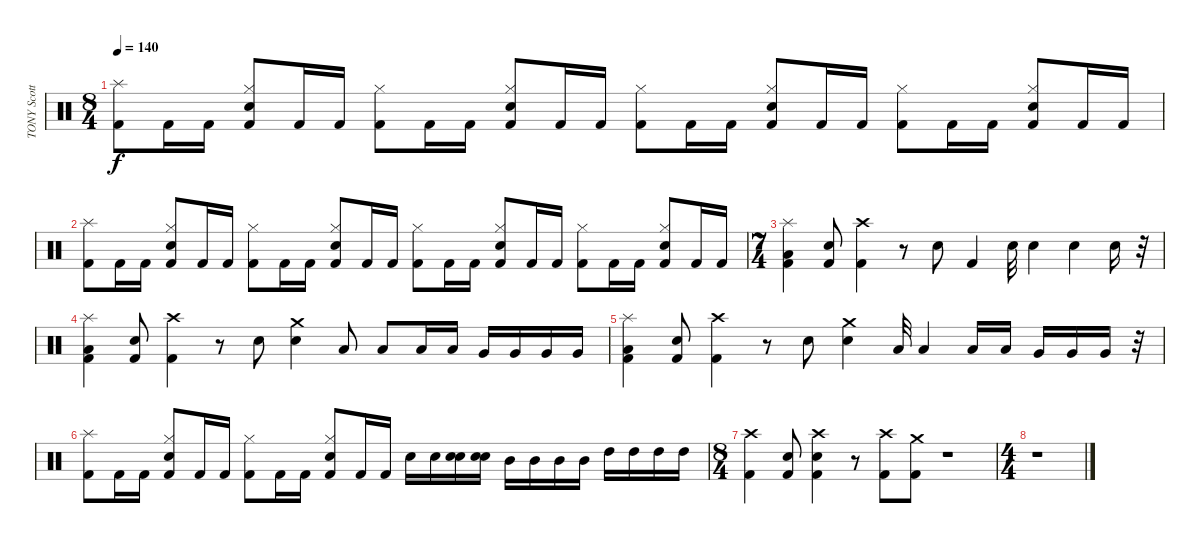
\track ("TONY Scotto" "TONY Scott") {instrument percussion}
\staff {score}
\articulation defaults
\ts (8 4)
\tempo 140
\clef neutral
\ks c
("Splash (hit)" "Kick (hit) 2").8{dy f} "Kick (hit) 2".16 "Kick (hit) 2".16 ("Hi-Hat (closed)" "Electric Snare (hit)" "Kick (hit) 2").8 "Kick (hit) 2".16 "Kick (hit) 2".16 ("Hi-Hat (closed)" "Kick (hit) 2").8 "Kick (hit) 2".16 "Kick (hit) 2".16 ("Hi-Hat (closed)" "Electric Snare (hit)" "Kick (hit) 2").8 "Kick (hit) 2".16 "Kick (hit) 2".16 ("Hi-Hat (closed)" "Kick (hit) 2").8 "Kick (hit) 2".16 "Kick (hit) 2".16 ("Hi-Hat (closed)" "Electric Snare (hit)" "Kick (hit) 2").8 "Kick (hit) 2".16 "Kick (hit) 2".16 ("Hi-Hat (closed)" "Kick (hit) 2").8 "Kick (hit) 2".16 "Kick (hit) 2".16 ("Hi-Hat (closed)" "Electric Snare (hit)" "Kick (hit) 2").8 "Kick (hit) 2".16 "Kick (hit) 2".16 |
("Splash (hit)" "Kick (hit) 2").8 "Kick (hit) 2".16 "Kick (hit) 2".16 ("Hi-Hat (closed)" "Electric Snare (hit)" "Kick (hit) 2").8 "Kick (hit) 2".16 "Kick (hit) 2".16 ("Hi-Hat (closed)" "Kick (hit) 2").8 "Kick (hit) 2".16 "Kick (hit) 2".16 ("Hi-Hat (closed)" "Electric Snare (hit)" "Kick (hit) 2").8 "Kick (hit) 2".16 "Kick (hit) 2".16 ("Hi-Hat (closed)" "Kick (hit) 2").8 "Kick (hit) 2".16 "Kick (hit) 2".16 ("Hi-Hat (closed)" "Electric Snare (hit)" "Kick (hit) 2").8 "Kick (hit) 2".16 "Kick (hit) 2".16 ("Hi-Hat (closed)" "Kick (hit) 2").8 "Kick (hit) 2".16 "Kick (hit) 2".16 ("Hi-Hat (closed)" "Electric Snare (hit)" "Kick (hit) 2").8 "Kick (hit) 2".16 "Kick (hit) 2".16 |
\ts (7 4)
("Splash (hit)" "Low Tom (hit)" "Kick (hit) 2").4 ("Electric Snare (hit)" "Kick (hit) 2").8 ("Crash high (hit)" "Kick (hit) 2").4 r.8 "Electric Snare (hit)".8 "Kick (hit) 2".4 "Electric Snare (hit)".32 "Electric Snare (hit)".4 "Electric Snare (hit)".4 "Electric Snare (hit)".16 r.32 |
("Splash (hit)" "Low Tom (hit)" "Kick (hit) 2").4 ("Electric Snare (hit)" "Kick (hit) 2").8 ("Crash high (hit)" "Kick (hit) 2").4 r.8 "Electric Snare (hit)".8 ("Crash medium (hit)" "Electric Snare (hit)").4 "Low Floor Tom (hit)".8 "Low Floor Tom (hit)".8 "Low Floor Tom (hit)".16 "Low Floor Tom (hit)".16 "Very Low Tom (hit)".16 "Very Low Tom (hit)".16 "Very Low Tom (hit)".16 "Very Low Tom (hit)".16 |
("Splash (hit)" "Low Tom (hit)" "Kick (hit) 2").4 ("Electric Snare (hit)" "Kick (hit) 2").8 ("Crash high (hit)" "Kick (hit) 2").4 r.8 "Electric Snare (hit)".8 ("Crash medium (hit)" "Electric Snare (hit)").4 "Low Floor Tom (hit)".32 "Low Floor Tom (hit)".4 "Low Floor Tom (hit)".16 "Low Floor Tom (hit)".16 "Very Low Tom (hit)".16 "Very Low Tom (hit)".16 "Very Low Tom (hit)".16 r.32 |
("Splash (hit)" "Kick (hit) 2").8 "Kick (hit) 2".16 "Kick (hit) 2".16 ("Hi-Hat (closed)" "Electric Snare (hit)" "Kick (hit) 2").8 "Kick (hit) 2".16 "Kick (hit) 2".16 ("Hi-Hat (closed)" "Kick (hit) 2").8 "Kick (hit) 2".16 "Kick (hit) 2".16 ("Hi-Hat (closed)" "Electric Snare (hit)" "Kick (hit) 2").8 "Kick (hit) 2".16 "Kick (hit) 2".16 "Electric Snare (hit)".16 "Electric Snare (hit)".16 ("Electric Snare (hit)" "Electric Snare (hit)").16 ("Electric Snare (hit)" "Electric Snare (hit)").16 "Mid Tom (hit)".16 "Mid Tom (hit)".16 "Mid Tom (hit)".16 "Mid Tom (hit)".16 "High Tom (hit)".16 "High Tom (hit)".16 "High Tom (hit)".16 "High Tom (hit)".16 |
\ts (8 4)
("Crash high (hit)" "Kick (hit) 2").4 ("Electric Snare (hit)" "Kick (hit) 2").8 ("Crash high (hit)" "Electric Snare (hit)" "Kick (hit) 2").4 r.8 ("Crash high (hit)" "Kick (hit) 2").8 ("Crash medium (hit)" "Kick (hit) 2").8 r.1 |
\ts (4 4)
r.1
